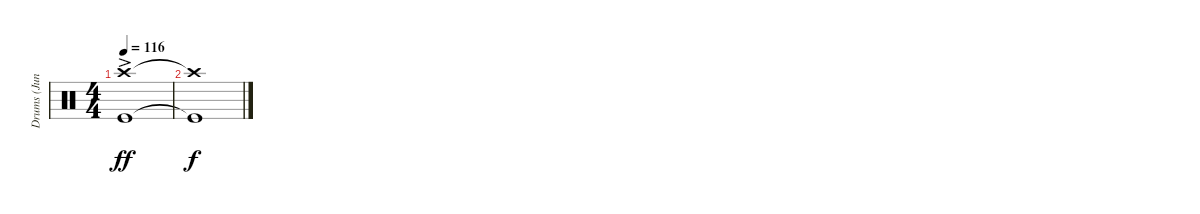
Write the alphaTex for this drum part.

\track ("Drums (Junichi Sato)" "Drums (Jun") {instrument percussion}
\staff {score}
\articulation defaults
\ts (4 4)
\tempo 116
\clef neutral
\ks c
("Crash high (hit)"{ac} "Kick (hit)").1{dy ff} |
("Crash high (hit)"{t} "Kick (hit)"{t}).1{dy f}
